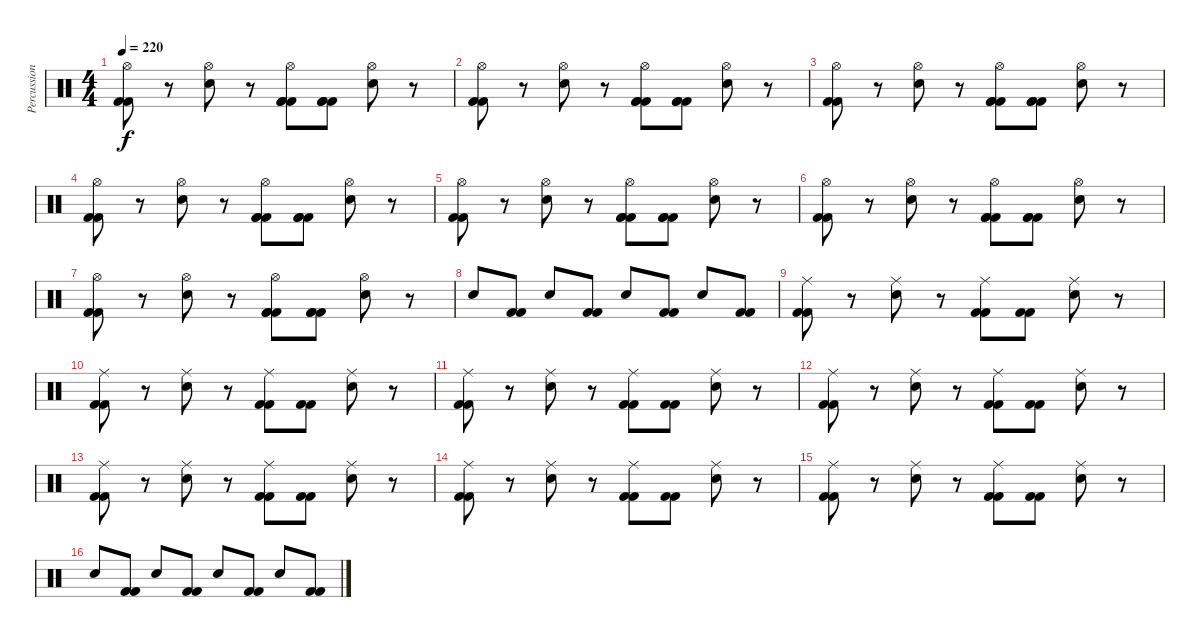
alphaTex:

\track ("Percussion" "Percussion") {instrument percussion}
\staff {score}
\articulation defaults
\ts (4 4)
\tempo 220
\clef neutral
\ks c
("Hi-Hat (open)" "Kick (hit) 2" "Kick (hit) 2").8{dy f} r.8 ("Hi-Hat (open)" "Electric Snare (hit)").8 r.8 ("Hi-Hat (open)" "Kick (hit) 2" "Kick (hit) 2" "Kick (hit) 2").8 ("Kick (hit) 2" "Kick (hit) 2" "Kick (hit) 2").8 ("Hi-Hat (open)" "Electric Snare (hit)").8 r.8 |
("Hi-Hat (open)" "Kick (hit) 2" "Kick (hit) 2").8 r.8 ("Hi-Hat (open)" "Electric Snare (hit)").8 r.8 ("Hi-Hat (open)" "Kick (hit) 2" "Kick (hit) 2" "Kick (hit) 2").8 ("Kick (hit) 2" "Kick (hit) 2" "Kick (hit) 2").8 ("Hi-Hat (open)" "Electric Snare (hit)").8 r.8 |
("Hi-Hat (open)" "Kick (hit) 2" "Kick (hit) 2").8 r.8 ("Hi-Hat (open)" "Electric Snare (hit)").8 r.8 ("Hi-Hat (open)" "Kick (hit) 2" "Kick (hit) 2" "Kick (hit) 2").8 ("Kick (hit) 2" "Kick (hit) 2" "Kick (hit) 2").8 ("Hi-Hat (open)" "Electric Snare (hit)").8 r.8 |
("Hi-Hat (open)" "Kick (hit) 2" "Kick (hit) 2").8 r.8 ("Hi-Hat (open)" "Electric Snare (hit)").8 r.8 ("Hi-Hat (open)" "Kick (hit) 2" "Kick (hit) 2" "Kick (hit) 2").8 ("Kick (hit) 2" "Kick (hit) 2" "Kick (hit) 2").8 ("Hi-Hat (open)" "Electric Snare (hit)").8 r.8 |
("Hi-Hat (open)" "Kick (hit) 2" "Kick (hit) 2").8 r.8 ("Hi-Hat (open)" "Electric Snare (hit)").8 r.8 ("Hi-Hat (open)" "Kick (hit) 2" "Kick (hit) 2" "Kick (hit) 2").8 ("Kick (hit) 2" "Kick (hit) 2" "Kick (hit) 2").8 ("Hi-Hat (open)" "Electric Snare (hit)").8 r.8 |
("Hi-Hat (open)" "Kick (hit) 2" "Kick (hit) 2").8 r.8 ("Hi-Hat (open)" "Electric Snare (hit)").8 r.8 ("Hi-Hat (open)" "Kick (hit) 2" "Kick (hit) 2" "Kick (hit) 2").8 ("Kick (hit) 2" "Kick (hit) 2" "Kick (hit) 2").8 ("Hi-Hat (open)" "Electric Snare (hit)").8 r.8 |
("Hi-Hat (open)" "Kick (hit) 2" "Kick (hit) 2").8 r.8 ("Hi-Hat (open)" "Electric Snare (hit)").8 r.8 ("Hi-Hat (open)" "Kick (hit) 2" "Kick (hit) 2" "Kick (hit) 2").8 ("Kick (hit) 2" "Kick (hit) 2" "Kick (hit) 2").8 ("Hi-Hat (open)" "Electric Snare (hit)").8 r.8 |
"Electric Snare (hit)".8 ("Kick (hit) 2" "Kick (hit) 2").8 "Electric Snare (hit)".8 ("Kick (hit) 2" "Kick (hit) 2").8 "Electric Snare (hit)".8 ("Kick (hit) 2" "Kick (hit) 2").8 "Electric Snare (hit)".8 ("Kick (hit) 2" "Kick (hit) 2").8 |
("Ride (middle)" "Kick (hit) 2" "Kick (hit) 2").8 r.8 ("Ride (middle)" "Electric Snare (hit)").8 r.8 ("Ride (middle)" "Kick (hit) 2" "Kick (hit) 2").8 ("Kick (hit) 2" "Kick (hit) 2").8 ("Ride (middle)" "Electric Snare (hit)").8 r.8 |
("Ride (middle)" "Kick (hit) 2" "Kick (hit) 2").8 r.8 ("Ride (middle)" "Electric Snare (hit)").8 r.8 ("Ride (middle)" "Kick (hit) 2" "Kick (hit) 2").8 ("Kick (hit) 2" "Kick (hit) 2").8 ("Ride (middle)" "Electric Snare (hit)").8 r.8 |
("Ride (middle)" "Kick (hit) 2" "Kick (hit) 2").8 r.8 ("Ride (middle)" "Electric Snare (hit)").8 r.8 ("Ride (middle)" "Kick (hit) 2" "Kick (hit) 2").8 ("Kick (hit) 2" "Kick (hit) 2").8 ("Ride (middle)" "Electric Snare (hit)").8 r.8 |
("Ride (middle)" "Kick (hit) 2" "Kick (hit) 2").8 r.8 ("Ride (middle)" "Electric Snare (hit)").8 r.8 ("Ride (middle)" "Kick (hit) 2" "Kick (hit) 2").8 ("Kick (hit) 2" "Kick (hit) 2").8 ("Ride (middle)" "Electric Snare (hit)").8 r.8 |
("Ride (middle)" "Kick (hit) 2" "Kick (hit) 2").8 r.8 ("Ride (middle)" "Electric Snare (hit)").8 r.8 ("Ride (middle)" "Kick (hit) 2" "Kick (hit) 2").8 ("Kick (hit) 2" "Kick (hit) 2").8 ("Ride (middle)" "Electric Snare (hit)").8 r.8 |
("Ride (middle)" "Kick (hit) 2" "Kick (hit) 2").8 r.8 ("Ride (middle)" "Electric Snare (hit)").8 r.8 ("Ride (middle)" "Kick (hit) 2" "Kick (hit) 2").8 ("Kick (hit) 2" "Kick (hit) 2").8 ("Ride (middle)" "Electric Snare (hit)").8 r.8 |
("Ride (middle)" "Kick (hit) 2" "Kick (hit) 2").8 r.8 ("Ride (middle)" "Electric Snare (hit)").8 r.8 ("Ride (middle)" "Kick (hit) 2" "Kick (hit) 2").8 ("Kick (hit) 2" "Kick (hit) 2").8 ("Ride (middle)" "Electric Snare (hit)").8 r.8 |
"Electric Snare (hit)".8 ("Kick (hit) 2" "Kick (hit) 2").8 "Electric Snare (hit)".8 ("Kick (hit) 2" "Kick (hit) 2").8 "Electric Snare (hit)".8 ("Kick (hit) 2" "Kick (hit) 2").8 "Electric Snare (hit)".8 ("Kick (hit) 2" "Kick (hit) 2").8
